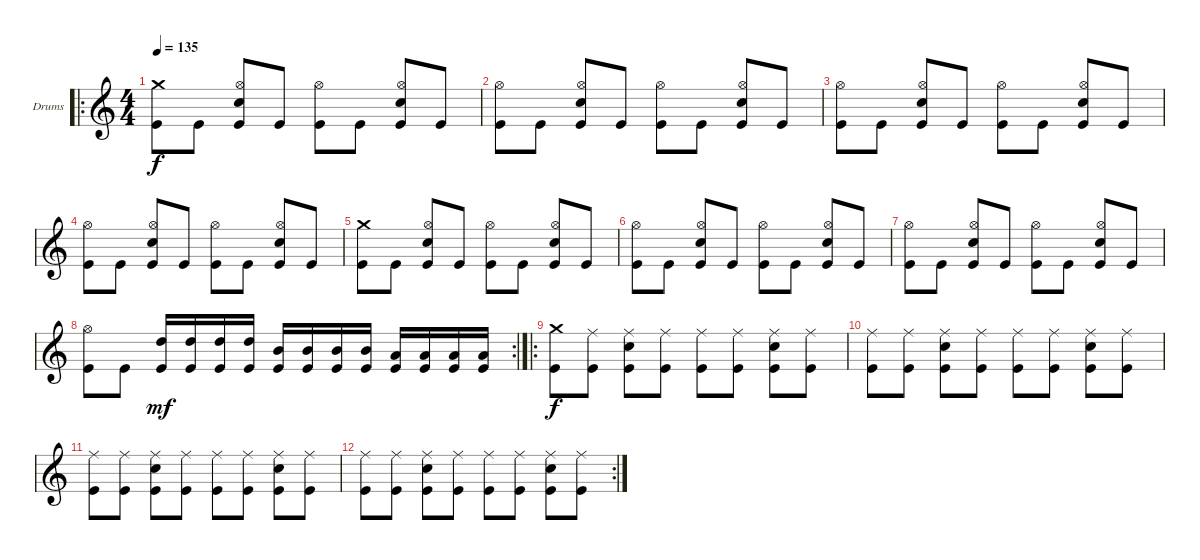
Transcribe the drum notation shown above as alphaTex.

\defaultSystemsLayout 4
\bracketExtendMode groupsimilarinstruments
\firstSystemTrackNameOrientation horizontal
\otherSystemsTrackNameOrientation horizontal
\track ("Drums" "Drums") {instrument percussion}
\staff {score}
\articulation defaults
\ro
\ts (4 4)
\tempo 135
\clef g2
\ks c
("Crash medium (hit)" "Kick (hit)").8{dy f} "Kick (hit)".8 ("Hi-Hat (open)" "Snare (hit) 2" "Kick (hit)").8 "Kick (hit)".8 ("Hi-Hat (open)" "Kick (hit)").8 "Kick (hit)".8 ("Hi-Hat (open)" "Snare (hit) 2" "Kick (hit)").8 "Kick (hit)".8 |
("Hi-Hat (open)" "Kick (hit)").8 "Kick (hit)".8 ("Hi-Hat (open)" "Snare (hit) 2" "Kick (hit)").8 "Kick (hit)".8 ("Hi-Hat (open)" "Kick (hit)").8 "Kick (hit)".8 ("Hi-Hat (open)" "Snare (hit) 2" "Kick (hit)").8 "Kick (hit)".8 |
("Hi-Hat (open)" "Kick (hit)").8 "Kick (hit)".8 ("Hi-Hat (open)" "Snare (hit) 2" "Kick (hit)").8 "Kick (hit)".8 ("Hi-Hat (open)" "Kick (hit)").8 "Kick (hit)".8 ("Hi-Hat (open)" "Snare (hit) 2" "Kick (hit)").8 "Kick (hit)".8 |
("Hi-Hat (open)" "Kick (hit)").8 "Kick (hit)".8 ("Hi-Hat (open)" "Snare (hit) 2" "Kick (hit)").8 "Kick (hit)".8 ("Hi-Hat (open)" "Kick (hit)").8 "Kick (hit)".8 ("Hi-Hat (open)" "Snare (hit) 2" "Kick (hit)").8 "Kick (hit)".8 |
("Crash medium (hit)" "Kick (hit)").8 "Kick (hit)".8 ("Hi-Hat (open)" "Snare (hit) 2" "Kick (hit)").8 "Kick (hit)".8 ("Hi-Hat (open)" "Kick (hit)").8 "Kick (hit)".8 ("Hi-Hat (open)" "Snare (hit) 2" "Kick (hit)").8 "Kick (hit)".8 |
("Hi-Hat (open)" "Kick (hit)").8 "Kick (hit)".8 ("Hi-Hat (open)" "Snare (hit) 2" "Kick (hit)").8 "Kick (hit)".8 ("Hi-Hat (open)" "Kick (hit)").8 "Kick (hit)".8 ("Hi-Hat (open)" "Snare (hit) 2" "Kick (hit)").8 "Kick (hit)".8 |
("Hi-Hat (open)" "Kick (hit)").8 "Kick (hit)".8 ("Hi-Hat (open)" "Snare (hit) 2" "Kick (hit)").8 "Kick (hit)".8 ("Hi-Hat (open)" "Kick (hit)").8 "Kick (hit)".8 ("Hi-Hat (open)" "Snare (hit) 2" "Kick (hit)").8 "Kick (hit)".8 |
\rc 2
("Hi-Hat (open)" "Kick (hit)").8 "Kick (hit)".8 ("High Tom (hit)" "Kick (hit)").16{dy mf} ("High Tom (hit)" "Kick (hit)").16 ("High Tom (hit)" "Kick (hit)").16 ("High Tom (hit)" "Kick (hit)").16 ("Mid Tom (hit)" "Kick (hit)").16 ("Mid Tom (hit)" "Kick (hit)").16 ("Mid Tom (hit)" "Kick (hit)").16 ("Mid Tom (hit)" "Kick (hit)").16 ("Low Tom (hit)" "Kick (hit)").16 ("Low Tom (hit)" "Kick (hit)").16 ("Low Tom (hit)" "Kick (hit)").16 ("Low Tom (hit)" "Kick (hit)").16 |
\ro
("Crash medium (hit)" "Kick (hit)").8{dy f} ("Ride (middle)" "Kick (hit)").8 ("Ride (middle)" "Snare (hit) 2" "Kick (hit)").8 ("Ride (middle)" "Kick (hit)").8 ("Ride (middle)" "Kick (hit)").8 ("Ride (middle)" "Kick (hit)").8 ("Ride (middle)" "Snare (hit) 2" "Kick (hit)").8 ("Ride (middle)" "Kick (hit)").8 |
("Ride (middle)" "Kick (hit)").8 ("Ride (middle)" "Kick (hit)").8 ("Ride (middle)" "Snare (hit) 2" "Kick (hit)").8 ("Ride (middle)" "Kick (hit)").8 ("Ride (middle)" "Kick (hit)").8 ("Ride (middle)" "Kick (hit)").8 ("Ride (middle)" "Snare (hit) 2" "Kick (hit)").8 ("Ride (middle)" "Kick (hit)").8 |
("Ride (middle)" "Kick (hit)").8 ("Ride (middle)" "Kick (hit)").8 ("Ride (middle)" "Snare (hit) 2" "Kick (hit)").8 ("Ride (middle)" "Kick (hit)").8 ("Ride (middle)" "Kick (hit)").8 ("Ride (middle)" "Kick (hit)").8 ("Ride (middle)" "Snare (hit) 2" "Kick (hit)").8 ("Ride (middle)" "Kick (hit)").8 |
\rc 2
("Ride (middle)" "Kick (hit)").8 ("Ride (middle)" "Kick (hit)").8 ("Ride (middle)" "Snare (hit) 2" "Kick (hit)").8 ("Ride (middle)" "Kick (hit)").8 ("Ride (middle)" "Kick (hit)").8 ("Ride (middle)" "Kick (hit)").8 ("Ride (middle)" "Snare (hit) 2" "Kick (hit)").8 ("Ride (middle)" "Kick (hit)").8
